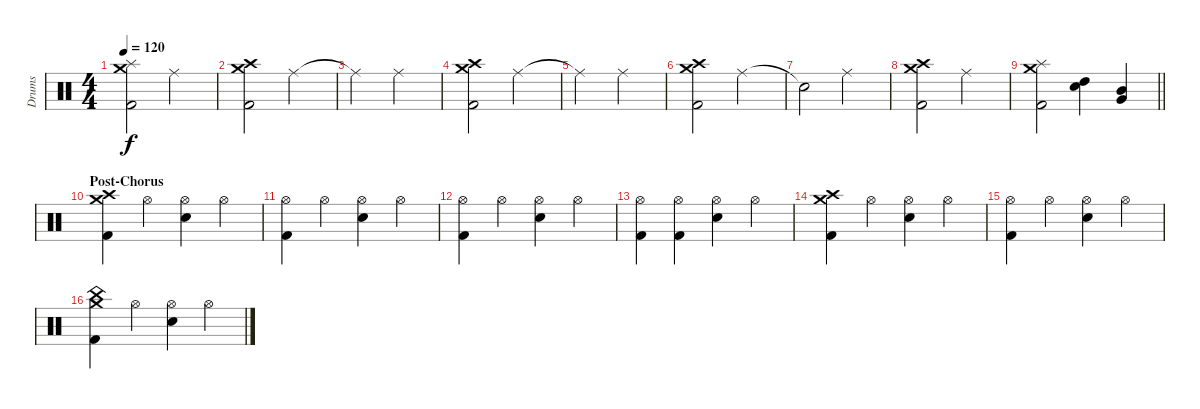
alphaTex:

\track ("Drums" "Drums") {instrument percussion}
\staff {score}
\articulation defaults
\ts (4 4)
\tempo 120
\clef neutral
\ks c
("Crash medium (hit)" "Splash (hit)" "Kick (hit) 2").2{dy f} "Ride (middle)".2 |
("Crash high (hit)" "Crash medium (hit)" "Kick (hit) 2").2 "Ride (middle)".2 |
"Ride (middle)"{t}.2 "Ride (middle)".2 |
("Crash high (hit)" "Crash medium (hit)" "Kick (hit) 2").2 "Ride (middle)".2 |
"Ride (middle)"{t}.2 "Ride (middle)".2 |
("Crash high (hit)" "Crash medium (hit)" "Kick (hit) 2").2 "Ride (middle)".2 |
"Snare (hit)"{t}.2 "Ride (middle)".2 |
("Crash high (hit)" "Crash medium (hit)" "Kick (hit) 2").2 "Ride (middle)".2 |
\barLineRight lightlight
("Crash medium (hit)" "Splash (hit)" "Kick (hit) 2").2 ("High Tom (hit)" "Snare (hit) 2").4 ("Mid Tom (hit)" "Very Low Tom (hit)").4 |
\section ("" "Post-Chorus")
("Crash high (hit)" "Crash medium (hit)" "Kick (hit) 2").4 "Hi-Hat (open)".4 ("Hi-Hat (open)" "Snare (hit) 2").4 "Hi-Hat (open)".4 |
("Hi-Hat (open)" "Kick (hit) 2").4 "Hi-Hat (open)".4 ("Hi-Hat (open)" "Snare (hit) 2").4 "Hi-Hat (open)".4 |
("Hi-Hat (open)" "Kick (hit) 2").4 "Hi-Hat (open)".4 ("Hi-Hat (open)" "Snare (hit) 2").4 "Hi-Hat (open)".4 |
("Hi-Hat (open)" "Kick (hit) 2").4 ("Hi-Hat (open)" "Kick (hit) 2").4 ("Hi-Hat (open)" "Snare (hit) 2").4 "Hi-Hat (open)".4 |
("Crash high (hit)" "Crash medium (hit)" "Kick (hit) 2").4 "Hi-Hat (open)".4 ("Hi-Hat (open)" "Snare (hit) 2").4 "Hi-Hat (open)".4 |
("Hi-Hat (open)" "Kick (hit) 2").4 "Hi-Hat (open)".4 ("Hi-Hat (open)" "Snare (hit) 2").4 "Hi-Hat (open)".4 |
("Crash medium (hit)" "China (hit)" "Kick (hit) 2").4 "Hi-Hat (open)".4 ("Hi-Hat (open)" "Snare (hit) 2").4 "Hi-Hat (open)".4
